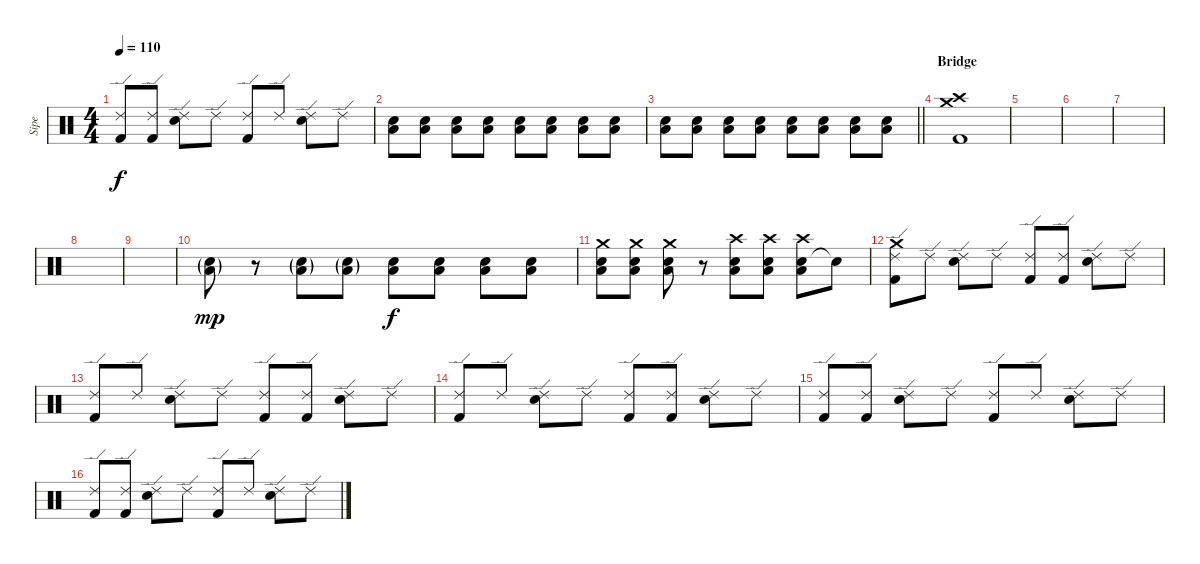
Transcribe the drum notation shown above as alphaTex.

\track ("Sipe" "Sipe") {instrument percussion}
\staff {score}
\articulation defaults
\ts (4 4)
\tempo 110
\clef neutral
\ks c
("Ride (edge) 2" "Kick (hit) 2").8{dy f} ("Ride (edge) 2" "Kick (hit) 2").8 ("Ride (edge) 2" "Snare (hit) 2").8 "Ride (edge) 2".8 ("Ride (edge) 2" "Kick (hit) 2").8 "Ride (edge) 2".8 ("Ride (edge) 2" "Snare (hit) 2").8 "Ride (edge) 2".8 |
("Snare (hit) 2" "Low Tom (hit)").8 ("Snare (hit) 2" "Low Tom (hit)").8 ("Snare (hit) 2" "Low Tom (hit)").8 ("Snare (hit) 2" "Low Tom (hit)").8 ("Snare (hit) 2" "Low Tom (hit)").8 ("Snare (hit) 2" "Low Tom (hit)").8 ("Snare (hit) 2" "Low Tom (hit)").8 ("Snare (hit) 2" "Low Tom (hit)").8 |
\barLineRight lightlight
("Snare (hit) 2" "Low Tom (hit)").8 ("Snare (hit) 2" "Low Tom (hit)").8 ("Snare (hit) 2" "Low Tom (hit)").8 ("Snare (hit) 2" "Low Tom (hit)").8 ("Snare (hit) 2" "Low Tom (hit)").8 ("Snare (hit) 2" "Low Tom (hit)").8 ("Snare (hit) 2" "Low Tom (hit)").8 ("Snare (hit) 2" "Low Tom (hit)").8 |
\section ("" "Bridge")
("Kick (hit) 2" "Crash medium (hit)" "Crash high (hit)").1 |
|
|
|
|
|
("Low Tom (hit)"{g} "Snare (hit) 2"{g}).8{dy mp} r.8 ("Low Tom (hit)"{g} "Snare (hit) 2"{g}).8 ("Low Tom (hit)"{g} "Snare (hit) 2"{g}).8 ("Low Tom (hit)" "Snare (hit) 2").8{dy f} ("Low Tom (hit)" "Snare (hit) 2").8 ("Low Tom (hit)" "Snare (hit) 2").8 ("Low Tom (hit)" "Snare (hit) 2").8 |
("Low Tom (hit)" "Snare (hit) 2" "Crash medium (hit)").8 ("Low Tom (hit)" "Snare (hit) 2" "Crash medium (hit)").8 ("Low Tom (hit)" "Snare (hit) 2" "Crash medium (hit)").8 r.8 ("Snare (hit) 2" "Low Tom (hit)" "Crash high (hit)").8 ("Snare (hit) 2" "Low Tom (hit)" "Crash high (hit)").8 ("Snare (hit) 2" "Low Tom (hit)" "Crash high (hit)").8 "Snare (hit)"{t}.8 |
("Ride (edge) 2" "Kick (hit) 2" "Crash medium (hit)").8 "Ride (edge) 2".8 ("Ride (edge) 2" "Snare (hit) 2").8 "Ride (edge) 2".8 ("Ride (edge) 2" "Kick (hit) 2").8 ("Ride (edge) 2" "Kick (hit) 2").8 ("Ride (edge) 2" "Snare (hit) 2").8 "Ride (edge) 2".8 |
("Ride (edge) 2" "Kick (hit) 2").8 "Ride (edge) 2".8 ("Ride (edge) 2" "Snare (hit) 2").8 "Ride (edge) 2".8 ("Ride (edge) 2" "Kick (hit) 2").8 ("Ride (edge) 2" "Kick (hit) 2").8 ("Ride (edge) 2" "Snare (hit) 2").8 "Ride (edge) 2".8 |
("Ride (edge) 2" "Kick (hit) 2").8 "Ride (edge) 2".8 ("Ride (edge) 2" "Snare (hit) 2").8 "Ride (edge) 2".8 ("Ride (edge) 2" "Kick (hit) 2").8 ("Ride (edge) 2" "Kick (hit) 2").8 ("Ride (edge) 2" "Snare (hit) 2").8 "Ride (edge) 2".8 |
("Ride (edge) 2" "Kick (hit) 2").8 ("Ride (edge) 2" "Kick (hit) 2").8 ("Ride (edge) 2" "Snare (hit) 2").8 "Ride (edge) 2".8 ("Ride (edge) 2" "Kick (hit) 2").8 "Ride (edge) 2".8 ("Ride (edge) 2" "Snare (hit) 2").8 "Ride (edge) 2".8 |
("Ride (edge) 2" "Kick (hit) 2").8 ("Ride (edge) 2" "Kick (hit) 2").8 ("Ride (edge) 2" "Snare (hit) 2").8 "Ride (edge) 2".8 ("Ride (edge) 2" "Kick (hit) 2").8 "Ride (edge) 2".8 ("Ride (edge) 2" "Snare (hit) 2").8 "Ride (edge) 2".8
